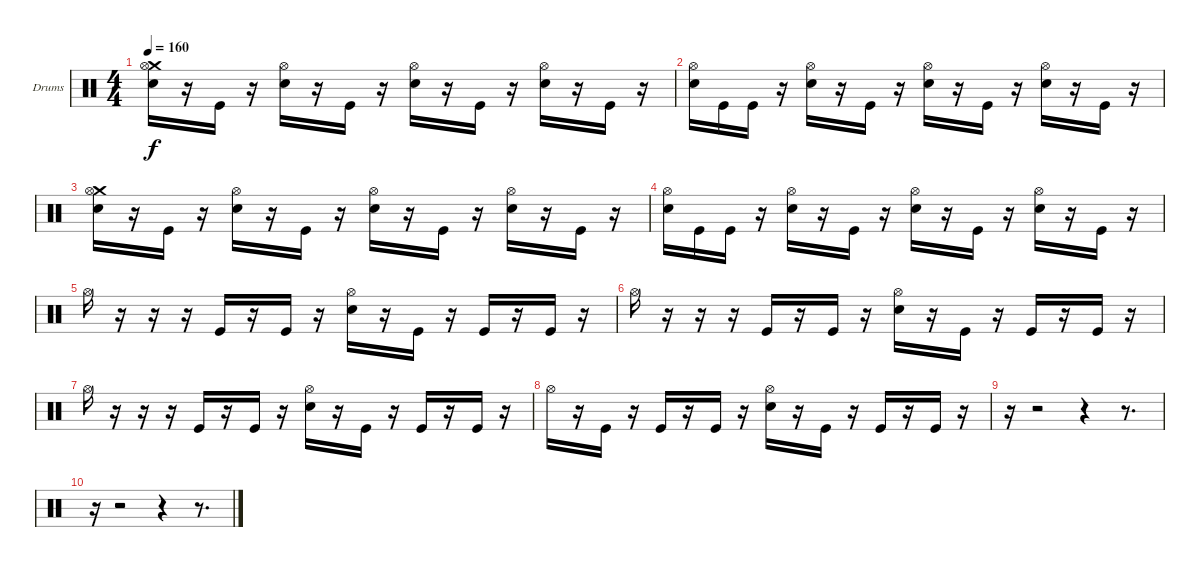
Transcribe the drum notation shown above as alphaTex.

\bracketExtendMode groupsimilarinstruments
\firstSystemTrackNameOrientation horizontal
\otherSystemsTrackNameOrientation horizontal
\track ("Drumkit" "Drums") {instrument percussion}
\staff {score}
\articulation defaults
\ts (4 4)
\tempo 160
\clef neutral
\ks c
("Crash medium (hit)" "Hi-Hat (open)" "Snare (hit) 2").16{dy f} r.16 "Kick (hit)".16 r.16 ("Hi-Hat (open)" "Snare (hit) 2").16 r.16 "Kick (hit)".16 r.16 ("Hi-Hat (open)" "Snare (hit) 2").16 r.16 "Kick (hit)".16 r.16 ("Hi-Hat (open)" "Snare (hit) 2").16 r.16 "Kick (hit)".16 r.16 |
("Hi-Hat (open)" "Snare (hit) 2").16 "Kick (hit)".16 "Kick (hit)".16 r.16 ("Hi-Hat (open)" "Snare (hit) 2").16 r.16 "Kick (hit)".16 r.16 ("Hi-Hat (open)" "Snare (hit) 2").16 r.16 "Kick (hit)".16 r.16 ("Hi-Hat (open)" "Snare (hit) 2").16 r.16 "Kick (hit)".16 r.16 |
("Crash medium (hit)" "Hi-Hat (open)" "Snare (hit) 2").16 r.16 "Kick (hit)".16 r.16 ("Hi-Hat (open)" "Snare (hit) 2").16 r.16 "Kick (hit)".16 r.16 ("Hi-Hat (open)" "Snare (hit) 2").16 r.16 "Kick (hit)".16 r.16 ("Hi-Hat (open)" "Snare (hit) 2").16 r.16 "Kick (hit)".16 r.16 |
("Hi-Hat (open)" "Snare (hit) 2").16 "Kick (hit)".16 "Kick (hit)".16 r.16 ("Hi-Hat (open)" "Snare (hit) 2").16 r.16 "Kick (hit)".16 r.16 ("Hi-Hat (open)" "Snare (hit) 2").16 r.16 "Kick (hit)".16 r.16 ("Hi-Hat (open)" "Snare (hit) 2").16 r.16 "Kick (hit)".16 r.16 |
"Hi-Hat (open)".16 r.16 r.16 r.16 "Kick (hit)".16 r.16 "Kick (hit)".16 r.16 ("Hi-Hat (open)" "Snare (hit) 2").16 r.16 "Kick (hit)".16 r.16 "Kick (hit)".16 r.16 "Kick (hit)".16 r.16 |
"Hi-Hat (open)".16 r.16 r.16 r.16 "Kick (hit)".16 r.16 "Kick (hit)".16 r.16 ("Hi-Hat (open)" "Snare (hit) 2").16 r.16 "Kick (hit)".16 r.16 "Kick (hit)".16 r.16 "Kick (hit)".16 r.16 |
"Hi-Hat (open)".16 r.16 r.16 r.16 "Kick (hit)".16 r.16 "Kick (hit)".16 r.16 ("Hi-Hat (open)" "Snare (hit) 2").16 r.16 "Kick (hit)".16 r.16 "Kick (hit)".16 r.16 "Kick (hit)".16 r.16 |
"Hi-Hat (open)".16 r.16 "Kick (hit)".16 r.16 "Kick (hit)".16 r.16 "Kick (hit)".16 r.16 ("Hi-Hat (open)" "Snare (hit) 2").16 r.16 "Kick (hit)".16 r.16 "Kick (hit)".16 r.16 "Kick (hit)".16 r.16 |
r.16 r.2 r.4 r.8{d} |
r.16 r.2 r.4 r.8{d}
